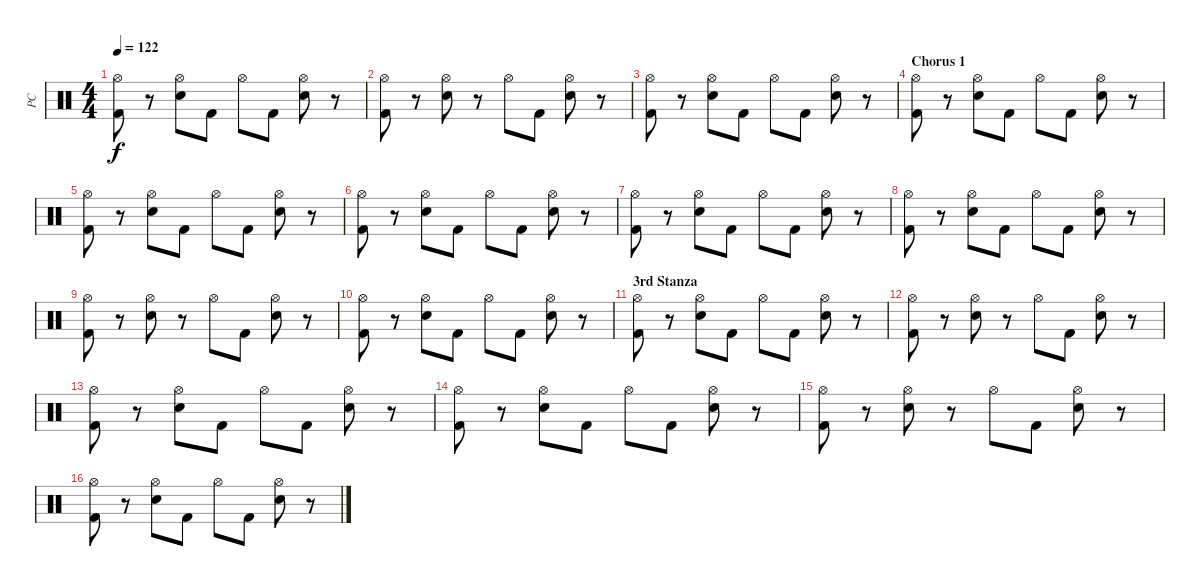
\track ("PC" "PC") {instrument percussion}
\staff {score}
\articulation defaults
\ts (4 4)
\tempo 122
\clef neutral
\ks c
("Hi-Hat (open)" "Kick (hit) 2").8{dy f} r.8 ("Hi-Hat (open)" "Electric Snare (hit)").8 "Kick (hit) 2".8 "Hi-Hat (open)".8 "Kick (hit) 2".8 ("Hi-Hat (open)" "Electric Snare (hit)").8 r.8 |
("Hi-Hat (open)" "Kick (hit) 2").8 r.8 ("Hi-Hat (open)" "Electric Snare (hit)").8 r.8 "Hi-Hat (open)".8 "Kick (hit) 2".8 ("Hi-Hat (open)" "Electric Snare (hit)").8 r.8 |
("Hi-Hat (open)" "Kick (hit) 2").8 r.8 ("Hi-Hat (open)" "Electric Snare (hit)").8 "Kick (hit) 2".8 "Hi-Hat (open)".8 "Kick (hit) 2".8 ("Hi-Hat (open)" "Electric Snare (hit)").8 r.8 |
\section ("" "Chorus 1")
("Hi-Hat (open)" "Kick (hit) 2").8 r.8 ("Hi-Hat (open)" "Electric Snare (hit)").8 "Kick (hit) 2".8 "Hi-Hat (open)".8 "Kick (hit) 2".8 ("Hi-Hat (open)" "Electric Snare (hit)").8 r.8 |
("Hi-Hat (open)" "Kick (hit) 2").8 r.8 ("Hi-Hat (open)" "Electric Snare (hit)").8 "Kick (hit) 2".8 "Hi-Hat (open)".8 "Kick (hit) 2".8 ("Hi-Hat (open)" "Electric Snare (hit)").8 r.8 |
("Hi-Hat (open)" "Kick (hit) 2").8 r.8 ("Hi-Hat (open)" "Electric Snare (hit)").8 "Kick (hit) 2".8 "Hi-Hat (open)".8 "Kick (hit) 2".8 ("Hi-Hat (open)" "Electric Snare (hit)").8 r.8 |
("Hi-Hat (open)" "Kick (hit) 2").8 r.8 ("Hi-Hat (open)" "Electric Snare (hit)").8 "Kick (hit) 2".8 "Hi-Hat (open)".8 "Kick (hit) 2".8 ("Hi-Hat (open)" "Electric Snare (hit)").8 r.8 |
("Hi-Hat (open)" "Kick (hit) 2").8 r.8 ("Hi-Hat (open)" "Electric Snare (hit)").8 "Kick (hit) 2".8 "Hi-Hat (open)".8 "Kick (hit) 2".8 ("Hi-Hat (open)" "Electric Snare (hit)").8 r.8 |
("Hi-Hat (open)" "Kick (hit) 2").8 r.8 ("Hi-Hat (open)" "Electric Snare (hit)").8 r.8 "Hi-Hat (open)".8 "Kick (hit) 2".8 ("Hi-Hat (open)" "Electric Snare (hit)").8 r.8 |
("Hi-Hat (open)" "Kick (hit) 2").8 r.8 ("Hi-Hat (open)" "Electric Snare (hit)").8 "Kick (hit) 2".8 "Hi-Hat (open)".8 "Kick (hit) 2".8 ("Hi-Hat (open)" "Electric Snare (hit)").8 r.8 |
\section ("" "3rd Stanza")
("Hi-Hat (open)" "Kick (hit) 2").8 r.8 ("Hi-Hat (open)" "Electric Snare (hit)").8 "Kick (hit) 2".8 "Hi-Hat (open)".8 "Kick (hit) 2".8 ("Hi-Hat (open)" "Electric Snare (hit)").8 r.8 |
("Hi-Hat (open)" "Kick (hit) 2").8 r.8 ("Hi-Hat (open)" "Electric Snare (hit)").8 r.8 "Hi-Hat (open)".8 "Kick (hit) 2".8 ("Hi-Hat (open)" "Electric Snare (hit)").8 r.8 |
("Hi-Hat (open)" "Kick (hit) 2").8 r.8 ("Hi-Hat (open)" "Electric Snare (hit)").8 "Kick (hit) 2".8 "Hi-Hat (open)".8 "Kick (hit) 2".8 ("Hi-Hat (open)" "Electric Snare (hit)").8 r.8 |
("Hi-Hat (open)" "Kick (hit) 2").8 r.8 ("Hi-Hat (open)" "Electric Snare (hit)").8 "Kick (hit) 2".8 "Hi-Hat (open)".8 "Kick (hit) 2".8 ("Hi-Hat (open)" "Electric Snare (hit)").8 r.8 |
("Hi-Hat (open)" "Kick (hit) 2").8 r.8 ("Hi-Hat (open)" "Electric Snare (hit)").8 r.8 "Hi-Hat (open)".8 "Kick (hit) 2".8 ("Hi-Hat (open)" "Electric Snare (hit)").8 r.8 |
("Hi-Hat (open)" "Kick (hit) 2").8 r.8 ("Hi-Hat (open)" "Electric Snare (hit)").8 "Kick (hit) 2".8 "Hi-Hat (open)".8 "Kick (hit) 2".8 ("Hi-Hat (open)" "Electric Snare (hit)").8 r.8
